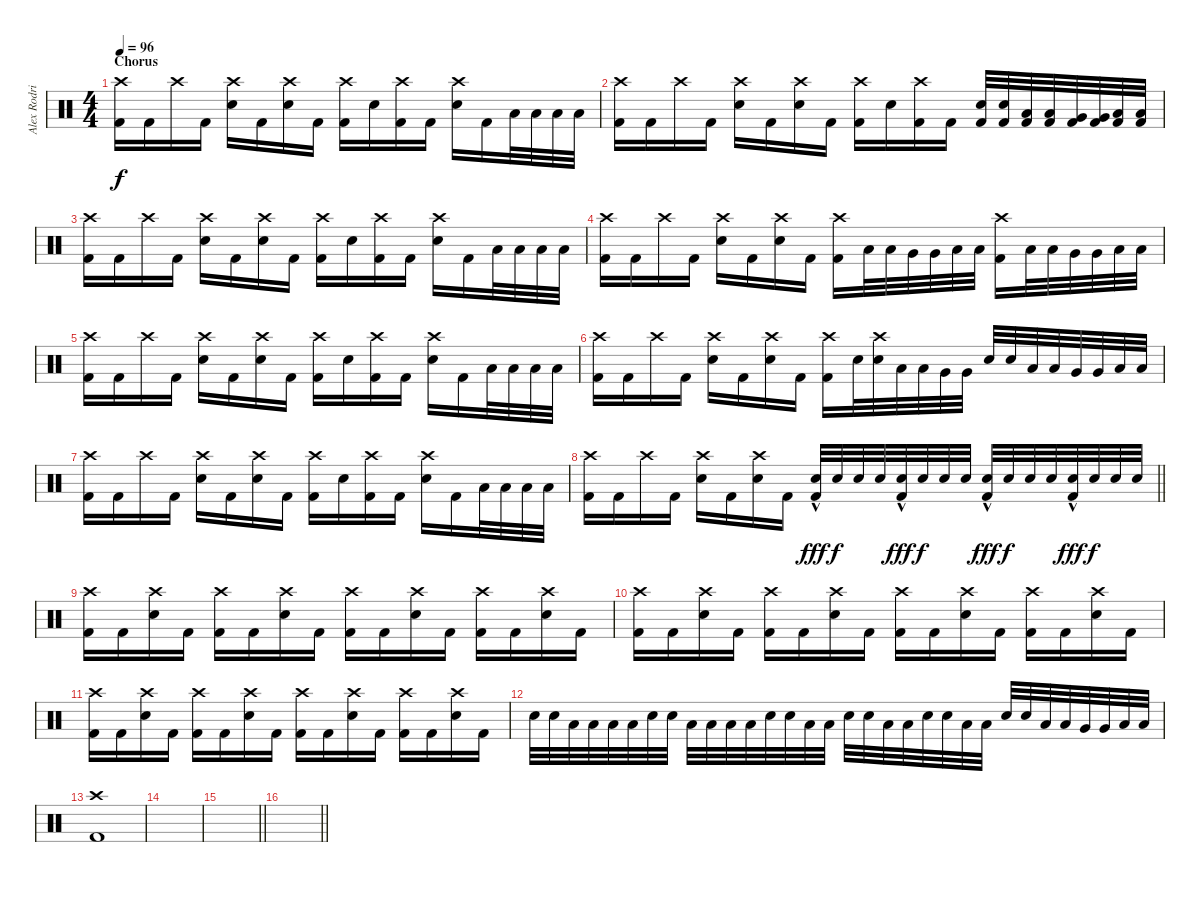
\track ("Alex Rodriguez" "Alex Rodri") {instrument percussion}
\staff {score}
\articulation defaults
\ts (4 4)
\section ("" "Chorus")
\tempo 96
\clef neutral
\ks c
("Crash high (hit)" "Kick (hit) 2").16{dy f} "Kick (hit) 2".16 "Crash high (hit)".16 "Kick (hit) 2".16 ("Crash high (hit)" "Electric Snare (hit)").16 "Kick (hit) 2".16 ("Crash high (hit)" "Electric Snare (hit)").16 "Kick (hit) 2".16 ("Crash high (hit)" "Kick (hit) 2").16 "Electric Snare (hit)".16 ("Crash high (hit)" "Kick (hit) 2").16 "Kick (hit) 2".16 ("Crash high (hit)" "Electric Snare (hit)").16 "Kick (hit) 2".16 "Low Floor Tom (hit)".32 "Low Floor Tom (hit)".32 "Low Floor Tom (hit)".32 "Low Floor Tom (hit)".32 |
("Crash high (hit)" "Kick (hit) 2").16 "Kick (hit) 2".16 "Crash high (hit)".16 "Kick (hit) 2".16 ("Crash high (hit)" "Electric Snare (hit)").16 "Kick (hit) 2".16 ("Crash high (hit)" "Electric Snare (hit)").16 "Kick (hit) 2".16 ("Crash high (hit)" "Kick (hit) 2").16 "Electric Snare (hit)".16 ("Crash high (hit)" "Kick (hit) 2").16 "Kick (hit) 2".16 ("Electric Snare (hit)" "Kick (hit) 2").32 ("Electric Snare (hit)" "Kick (hit) 2").32 ("Low Tom (hit)" "Kick (hit) 2").32 ("Low Tom (hit)" "Kick (hit) 2").32 ("Very Low Tom (hit)" "Kick (hit) 2").32 ("Very Low Tom (hit)" "Kick (hit) 2").32 ("Low Floor Tom (hit)" "Kick (hit) 2").32 ("Low Floor Tom (hit)" "Kick (hit) 2").32 |
("Crash high (hit)" "Kick (hit) 2").16 "Kick (hit) 2".16 "Crash high (hit)".16 "Kick (hit) 2".16 ("Crash high (hit)" "Electric Snare (hit)").16 "Kick (hit) 2".16 ("Crash high (hit)" "Electric Snare (hit)").16 "Kick (hit) 2".16 ("Crash high (hit)" "Kick (hit) 2").16 "Electric Snare (hit)".16 ("Crash high (hit)" "Kick (hit) 2").16 "Kick (hit) 2".16 ("Crash high (hit)" "Electric Snare (hit)").16 "Kick (hit) 2".16 "Low Floor Tom (hit)".32 "Low Floor Tom (hit)".32 "Low Floor Tom (hit)".32 "Low Floor Tom (hit)".32 |
("Crash high (hit)" "Kick (hit) 2").16 "Kick (hit) 2".16 "Crash high (hit)".16 "Kick (hit) 2".16 ("Crash high (hit)" "Electric Snare (hit)").16 "Kick (hit) 2".16 ("Crash high (hit)" "Electric Snare (hit)").16 "Kick (hit) 2".16 ("Crash high (hit)" "Kick (hit) 2").16 "Low Tom (hit)".32 "Low Tom (hit)".32 "Very Low Tom (hit)".32 "Very Low Tom (hit)".32 "Low Floor Tom (hit)".32 "Low Floor Tom (hit)".32 ("Crash high (hit)" "Kick (hit) 2").16 "Low Tom (hit)".32 "Low Tom (hit)".32 "Very Low Tom (hit)".32 "Very Low Tom (hit)".32 "Low Floor Tom (hit)".32 "Low Floor Tom (hit)".32 |
("Crash high (hit)" "Kick (hit) 2").16 "Kick (hit) 2".16 "Crash high (hit)".16 "Kick (hit) 2".16 ("Crash high (hit)" "Electric Snare (hit)").16 "Kick (hit) 2".16 ("Crash high (hit)" "Electric Snare (hit)").16 "Kick (hit) 2".16 ("Crash high (hit)" "Kick (hit) 2").16 "Electric Snare (hit)".16 ("Crash high (hit)" "Kick (hit) 2").16 "Kick (hit) 2".16 ("Crash high (hit)" "Electric Snare (hit)").16 "Kick (hit) 2".16 "Low Floor Tom (hit)".32 "Low Floor Tom (hit)".32 "Low Floor Tom (hit)".32 "Low Floor Tom (hit)".32 |
("Crash high (hit)" "Kick (hit) 2").16 "Kick (hit) 2".16 "Crash high (hit)".16 "Kick (hit) 2".16 ("Crash high (hit)" "Electric Snare (hit)").16 "Kick (hit) 2".16 ("Crash high (hit)" "Electric Snare (hit)").16 "Kick (hit) 2".16 ("Crash high (hit)" "Kick (hit) 2").16 "Electric Snare (hit)".32 ("Crash high (hit)" "Electric Snare (hit)").32 "Low Tom (hit)".32 "Low Tom (hit)".32 "Very Low Tom (hit)".32 "Very Low Tom (hit)".32 "Electric Snare (hit)".32 "Electric Snare (hit)".32 "Low Tom (hit)".32 "Low Tom (hit)".32 "Very Low Tom (hit)".32 "Very Low Tom (hit)".32 "Low Floor Tom (hit)".32 "Low Floor Tom (hit)".32 |
("Crash high (hit)" "Kick (hit) 2").16 "Kick (hit) 2".16 "Crash high (hit)".16 "Kick (hit) 2".16 ("Crash high (hit)" "Electric Snare (hit)").16 "Kick (hit) 2".16 ("Crash high (hit)" "Electric Snare (hit)").16 "Kick (hit) 2".16 ("Crash high (hit)" "Kick (hit) 2").16 "Electric Snare (hit)".16 ("Crash high (hit)" "Kick (hit) 2").16 "Kick (hit) 2".16 ("Crash high (hit)" "Electric Snare (hit)").16 "Kick (hit) 2".16 "Low Floor Tom (hit)".32 "Low Floor Tom (hit)".32 "Low Floor Tom (hit)".32 "Low Floor Tom (hit)".32 |
\barLineRight lightlight
("Crash high (hit)" "Kick (hit) 2").16 "Kick (hit) 2".16 "Crash high (hit)".16 "Kick (hit) 2".16 ("Crash high (hit)" "Electric Snare (hit)").16 "Kick (hit) 2".16 ("Crash high (hit)" "Electric Snare (hit)").16 "Kick (hit) 2".16 ("Electric Snare (hit)"{hac} "Kick (hit) 2").32{dy fff} "Electric Snare (hit)".32{dy f} "Electric Snare (hit)".32 "Electric Snare (hit)".32 ("Electric Snare (hit)"{hac} "Kick (hit) 2").32{dy fff} "Electric Snare (hit)".32{dy f} "Electric Snare (hit)".32 "Electric Snare (hit)".32 ("Electric Snare (hit)"{hac} "Kick (hit) 2").32{dy fff} "Electric Snare (hit)".32{dy f} "Electric Snare (hit)".32 "Electric Snare (hit)".32 ("Electric Snare (hit)"{hac} "Kick (hit) 2").32{dy fff} "Electric Snare (hit)".32{dy f} "Electric Snare (hit)".32 "Electric Snare (hit)".32 |
("Crash high (hit)" "Kick (hit) 2").16 "Kick (hit) 2".16 ("Crash high (hit)" "Electric Snare (hit)").16 "Kick (hit) 2".16 ("Crash high (hit)" "Kick (hit) 2").16 "Kick (hit) 2".16 ("Crash high (hit)" "Electric Snare (hit)").16 "Kick (hit) 2".16 ("Crash high (hit)" "Kick (hit) 2").16 "Kick (hit) 2".16 ("Crash high (hit)" "Electric Snare (hit)").16 "Kick (hit) 2".16 ("Crash high (hit)" "Kick (hit) 2").16 "Kick (hit) 2".16 ("Crash high (hit)" "Electric Snare (hit)").16 "Kick (hit) 2".16 |
("Crash high (hit)" "Kick (hit) 2").16 "Kick (hit) 2".16 ("Crash high (hit)" "Electric Snare (hit)").16 "Kick (hit) 2".16 ("Crash high (hit)" "Kick (hit) 2").16 "Kick (hit) 2".16 ("Crash high (hit)" "Electric Snare (hit)").16 "Kick (hit) 2".16 ("Crash high (hit)" "Kick (hit) 2").16 "Kick (hit) 2".16 ("Crash high (hit)" "Electric Snare (hit)").16 "Kick (hit) 2".16 ("Crash high (hit)" "Kick (hit) 2").16 "Kick (hit) 2".16 ("Crash high (hit)" "Electric Snare (hit)").16 "Kick (hit) 2".16 |
("Crash high (hit)" "Kick (hit) 2").16 "Kick (hit) 2".16 ("Crash high (hit)" "Electric Snare (hit)").16 "Kick (hit) 2".16 ("Crash high (hit)" "Kick (hit) 2").16 "Kick (hit) 2".16 ("Crash high (hit)" "Electric Snare (hit)").16 "Kick (hit) 2".16 ("Crash high (hit)" "Kick (hit) 2").16 "Kick (hit) 2".16 ("Crash high (hit)" "Electric Snare (hit)").16 "Kick (hit) 2".16 ("Crash high (hit)" "Kick (hit) 2").16 "Kick (hit) 2".16 ("Crash high (hit)" "Electric Snare (hit)").16 "Kick (hit) 2".16 |
"Electric Snare (hit)".32 "Electric Snare (hit)".32 "Low Tom (hit)".32 "Low Tom (hit)".32 "Low Tom (hit)".32 "Low Tom (hit)".32 "Electric Snare (hit)".32 "Electric Snare (hit)".32 "Low Tom (hit)".32 "Low Tom (hit)".32 "Low Tom (hit)".32 "Low Tom (hit)".32 "Electric Snare (hit)".32 "Electric Snare (hit)".32 "Low Tom (hit)".32 "Low Tom (hit)".32 "Electric Snare (hit)".32 "Electric Snare (hit)".32 "Low Tom (hit)".32 "Low Tom (hit)".32 "Electric Snare (hit)".32 "Electric Snare (hit)".32 "Low Tom (hit)".32 "Low Tom (hit)".32 "Electric Snare (hit)".32 "Electric Snare (hit)".32 "Low Tom (hit)".32 "Low Tom (hit)".32 "Very Low Tom (hit)".32 "Very Low Tom (hit)".32 "Low Floor Tom (hit)".32 "Low Floor Tom (hit)".32 |
("Crash high (hit)" "Kick (hit) 2").1 |
|
\barLineRight lightlight
|
\barLineRight lightlight
